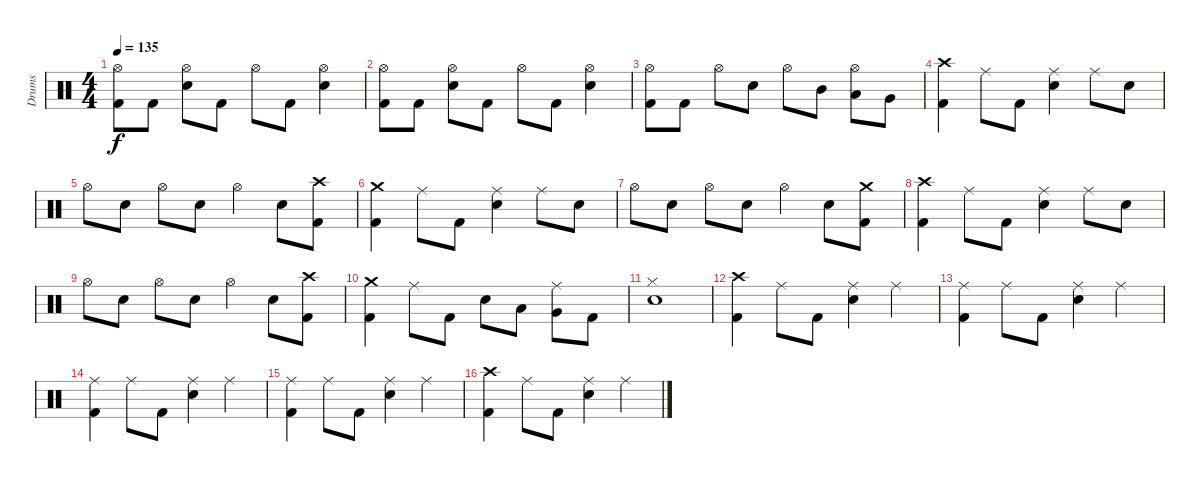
\track ("Drums" "Drums") {instrument percussion}
\staff {score}
\articulation defaults
\ts (4 4)
\tempo 135
\clef neutral
\ks c
("Hi-Hat (open)" "Kick (hit) 2").8{dy f} "Kick (hit) 2".8 ("Hi-Hat (open)" "Electric Snare (hit)").8 "Kick (hit) 2".8 "Hi-Hat (open)".8 "Kick (hit) 2".8 ("Hi-Hat (open)" "Electric Snare (hit)").4 |
("Hi-Hat (open)" "Kick (hit) 2").8 "Kick (hit) 2".8 ("Hi-Hat (open)" "Electric Snare (hit)").8 "Kick (hit) 2".8 "Hi-Hat (open)".8 "Kick (hit) 2".8 ("Hi-Hat (open)" "Electric Snare (hit)").4 |
("Hi-Hat (open)" "Kick (hit) 2").8 "Kick (hit) 2".8 "Hi-Hat (open)".8 "Electric Snare (hit)".8 "Hi-Hat (open)".8 "Mid Tom (hit)".8 ("Hi-Hat (open)" "Low Tom (hit)").8 "Very Low Tom (hit)".8 |
("Crash high (hit)" "Kick (hit) 2").4 "Ride (middle)".8 "Kick (hit) 2".8 ("Ride (middle)" "Electric Snare (hit)").4 "Ride (middle)".8 "Electric Snare (hit)".8 |
"Hi-Hat (open)".8 "Electric Snare (hit)".8 "Hi-Hat (open)".8 "Electric Snare (hit)".8 "Hi-Hat (open)".4 "Electric Snare (hit)".8 ("Crash high (hit)" "Kick (hit) 2").8 |
("Kick (hit) 2" "Crash medium (hit)").4 "Ride (middle)".8 "Kick (hit) 2".8 ("Ride (middle)" "Electric Snare (hit)").4 "Ride (middle)".8 "Electric Snare (hit)".8 |
"Hi-Hat (open)".8 "Electric Snare (hit)".8 "Hi-Hat (open)".8 "Electric Snare (hit)".8 "Hi-Hat (open)".4 "Electric Snare (hit)".8 ("Kick (hit) 2" "Crash medium (hit)").8 |
("Crash high (hit)" "Kick (hit) 2").4 "Ride (middle)".8 "Kick (hit) 2".8 ("Ride (middle)" "Electric Snare (hit)").4 "Ride (middle)".8 "Electric Snare (hit)".8 |
"Hi-Hat (open)".8 "Electric Snare (hit)".8 "Hi-Hat (open)".8 "Electric Snare (hit)".8 "Hi-Hat (open)".4 "Electric Snare (hit)".8 ("Crash high (hit)" "Kick (hit) 2").8 |
("Kick (hit) 2" "Crash medium (hit)").4 "Ride (middle)".8 "Kick (hit) 2".8 "Electric Snare (hit)".8 "Low Tom (hit)".8 ("Ride (middle)" "Very Low Tom (hit)").8 "Kick (hit) 2".8 |
("Hi-Hat (closed)" "Electric Snare (hit)").1 |
("Crash high (hit)" "Kick (hit) 2").4 "Ride (middle)".8 "Kick (hit) 2".8 ("Ride (middle)" "Electric Snare (hit)").4 "Ride (middle)".4 |
("Ride (middle)" "Kick (hit) 2").4 "Ride (middle)".8 "Kick (hit) 2".8 ("Ride (middle)" "Electric Snare (hit)").4 "Ride (middle)".4 |
("Ride (middle)" "Kick (hit) 2").4 "Ride (middle)".8 "Kick (hit) 2".8 ("Ride (middle)" "Electric Snare (hit)").4 "Ride (middle)".4 |
("Ride (middle)" "Kick (hit) 2").4 "Ride (middle)".8 "Kick (hit) 2".8 ("Ride (middle)" "Electric Snare (hit)").4 "Ride (middle)".4 |
("Crash high (hit)" "Kick (hit) 2").4 "Ride (middle)".8 "Kick (hit) 2".8 ("Ride (middle)" "Electric Snare (hit)").4 "Ride (middle)".4
